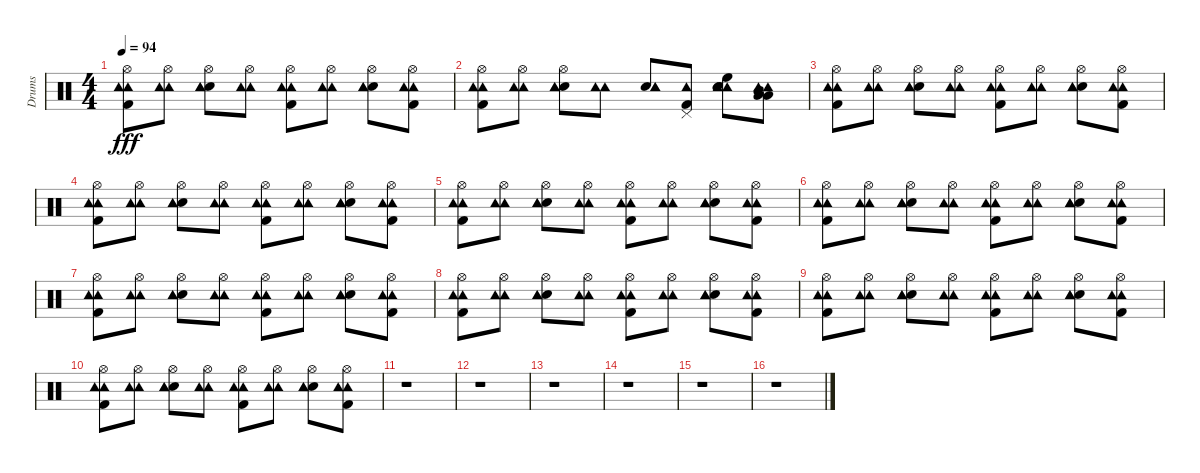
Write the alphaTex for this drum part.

\track ("Drums" "Drums") {instrument percussion}
\staff {score}
\articulation defaults
\ts (4 4)
\tempo 94
\clef neutral
\ks c
("Hi-Hat (open)" "Kick (hit) 2" "Tambourine (hit)" "Tambourine (hit)").8{dy fff} ("Hi-Hat (open)" "Tambourine (hit)" "Tambourine (hit)").8 ("Hi-Hat (open)" "Snare (hit) 2" "Tambourine (hit)" "Tambourine (hit)").8 ("Hi-Hat (open)" "Tambourine (hit)" "Tambourine (hit)").8 ("Hi-Hat (open)" "Kick (hit) 2" "Tambourine (hit)" "Tambourine (hit)").8 ("Hi-Hat (open)" "Tambourine (hit)" "Tambourine (hit)").8 ("Hi-Hat (open)" "Snare (hit) 2" "Tambourine (hit)" "Tambourine (hit)").8 ("Hi-Hat (open)" "Kick (hit) 2" "Tambourine (hit)" "Tambourine (hit)").8 |
("Hi-Hat (open)" "Kick (hit) 2" "Tambourine (hit)" "Tambourine (hit)").8 ("Hi-Hat (open)" "Tambourine (hit)" "Tambourine (hit)").8 ("Hi-Hat (open)" "Snare (hit) 2" "Tambourine (hit)" "Tambourine (hit)").8 ("Tambourine (hit)" "Tambourine (hit)").8 ("Electric Snare (hit)" "Tambourine (hit)" "Tambourine (hit)").8 ("Pedal Hi-Hat (hit)" "Tambourine (hit)" "Kick (hit) 2").8 ("Tambourine (hit)" "Electric Snare (hit)" "High Floor Tom (hit)" "Electric Snare (hit)" "Tambourine (hit)").8 ("Mid Tom (hit)" "Low Floor Tom (hit)" "Tambourine (hit)" "Low Floor Tom (hit)" "Tambourine (hit)").8 |
("Hi-Hat (open)" "Kick (hit) 2" "Tambourine (hit)" "Tambourine (hit)").8 ("Hi-Hat (open)" "Tambourine (hit)" "Tambourine (hit)").8 ("Hi-Hat (open)" "Snare (hit) 2" "Tambourine (hit)" "Tambourine (hit)").8 ("Hi-Hat (open)" "Tambourine (hit)" "Tambourine (hit)").8 ("Hi-Hat (open)" "Kick (hit) 2" "Tambourine (hit)" "Tambourine (hit)").8 ("Hi-Hat (open)" "Tambourine (hit)" "Tambourine (hit)").8 ("Hi-Hat (open)" "Snare (hit) 2" "Tambourine (hit)" "Tambourine (hit)").8 ("Hi-Hat (open)" "Kick (hit) 2" "Tambourine (hit)" "Tambourine (hit)").8 |
("Hi-Hat (open)" "Kick (hit) 2" "Tambourine (hit)" "Tambourine (hit)").8 ("Hi-Hat (open)" "Tambourine (hit)" "Tambourine (hit)").8 ("Hi-Hat (open)" "Snare (hit) 2" "Tambourine (hit)" "Tambourine (hit)").8 ("Hi-Hat (open)" "Tambourine (hit)" "Tambourine (hit)").8 ("Hi-Hat (open)" "Kick (hit) 2" "Tambourine (hit)" "Tambourine (hit)").8 ("Hi-Hat (open)" "Tambourine (hit)" "Tambourine (hit)").8 ("Hi-Hat (open)" "Snare (hit) 2" "Tambourine (hit)" "Tambourine (hit)").8 ("Hi-Hat (open)" "Kick (hit) 2" "Tambourine (hit)" "Tambourine (hit)").8 |
("Hi-Hat (open)" "Kick (hit) 2" "Tambourine (hit)" "Tambourine (hit)").8 ("Hi-Hat (open)" "Tambourine (hit)" "Tambourine (hit)").8 ("Hi-Hat (open)" "Snare (hit) 2" "Tambourine (hit)" "Tambourine (hit)").8 ("Hi-Hat (open)" "Tambourine (hit)" "Tambourine (hit)").8 ("Hi-Hat (open)" "Kick (hit) 2" "Tambourine (hit)" "Tambourine (hit)").8 ("Hi-Hat (open)" "Tambourine (hit)" "Tambourine (hit)").8 ("Hi-Hat (open)" "Snare (hit) 2" "Tambourine (hit)" "Tambourine (hit)").8 ("Hi-Hat (open)" "Kick (hit) 2" "Tambourine (hit)" "Tambourine (hit)").8 |
("Hi-Hat (open)" "Kick (hit) 2" "Tambourine (hit)" "Tambourine (hit)").8 ("Hi-Hat (open)" "Tambourine (hit)" "Tambourine (hit)").8 ("Hi-Hat (open)" "Snare (hit) 2" "Tambourine (hit)" "Tambourine (hit)").8 ("Hi-Hat (open)" "Tambourine (hit)" "Tambourine (hit)").8 ("Hi-Hat (open)" "Kick (hit) 2" "Tambourine (hit)" "Tambourine (hit)").8 ("Hi-Hat (open)" "Tambourine (hit)" "Tambourine (hit)").8 ("Hi-Hat (open)" "Snare (hit) 2" "Tambourine (hit)" "Tambourine (hit)").8 ("Hi-Hat (open)" "Kick (hit) 2" "Tambourine (hit)" "Tambourine (hit)").8 |
("Hi-Hat (open)" "Kick (hit) 2" "Tambourine (hit)" "Tambourine (hit)").8 ("Hi-Hat (open)" "Tambourine (hit)" "Tambourine (hit)").8 ("Hi-Hat (open)" "Snare (hit) 2" "Tambourine (hit)" "Tambourine (hit)").8 ("Hi-Hat (open)" "Tambourine (hit)" "Tambourine (hit)").8 ("Hi-Hat (open)" "Kick (hit) 2" "Tambourine (hit)" "Tambourine (hit)").8 ("Hi-Hat (open)" "Tambourine (hit)" "Tambourine (hit)").8 ("Hi-Hat (open)" "Snare (hit) 2" "Tambourine (hit)" "Tambourine (hit)").8 ("Hi-Hat (open)" "Kick (hit) 2" "Tambourine (hit)" "Tambourine (hit)").8 |
("Hi-Hat (open)" "Kick (hit) 2" "Tambourine (hit)" "Tambourine (hit)").8 ("Hi-Hat (open)" "Tambourine (hit)" "Tambourine (hit)").8 ("Hi-Hat (open)" "Snare (hit) 2" "Tambourine (hit)" "Tambourine (hit)").8 ("Hi-Hat (open)" "Tambourine (hit)" "Tambourine (hit)").8 ("Hi-Hat (open)" "Kick (hit) 2" "Tambourine (hit)" "Tambourine (hit)").8 ("Hi-Hat (open)" "Tambourine (hit)" "Tambourine (hit)").8 ("Hi-Hat (open)" "Snare (hit) 2" "Tambourine (hit)" "Tambourine (hit)").8 ("Hi-Hat (open)" "Kick (hit) 2" "Tambourine (hit)" "Tambourine (hit)").8 |
("Hi-Hat (open)" "Kick (hit) 2" "Tambourine (hit)" "Tambourine (hit)").8 ("Hi-Hat (open)" "Tambourine (hit)" "Tambourine (hit)").8 ("Hi-Hat (open)" "Snare (hit) 2" "Tambourine (hit)" "Tambourine (hit)").8 ("Hi-Hat (open)" "Tambourine (hit)" "Tambourine (hit)").8 ("Hi-Hat (open)" "Kick (hit) 2" "Tambourine (hit)" "Tambourine (hit)").8 ("Hi-Hat (open)" "Tambourine (hit)" "Tambourine (hit)").8 ("Hi-Hat (open)" "Snare (hit) 2" "Tambourine (hit)" "Tambourine (hit)").8 ("Hi-Hat (open)" "Kick (hit) 2" "Tambourine (hit)" "Tambourine (hit)").8 |
("Hi-Hat (open)" "Kick (hit) 2" "Tambourine (hit)" "Tambourine (hit)").8 ("Hi-Hat (open)" "Tambourine (hit)" "Tambourine (hit)").8 ("Hi-Hat (open)" "Snare (hit) 2" "Tambourine (hit)" "Tambourine (hit)").8 ("Hi-Hat (open)" "Tambourine (hit)" "Tambourine (hit)").8 ("Hi-Hat (open)" "Kick (hit) 2" "Tambourine (hit)" "Tambourine (hit)").8 ("Hi-Hat (open)" "Tambourine (hit)" "Tambourine (hit)").8 ("Hi-Hat (open)" "Snare (hit) 2" "Tambourine (hit)" "Tambourine (hit)").8 ("Hi-Hat (open)" "Kick (hit) 2" "Tambourine (hit)" "Tambourine (hit)").8 |
r.1 |
r.1 |
r.1 |
r.1 |
r.1 |
r.1
